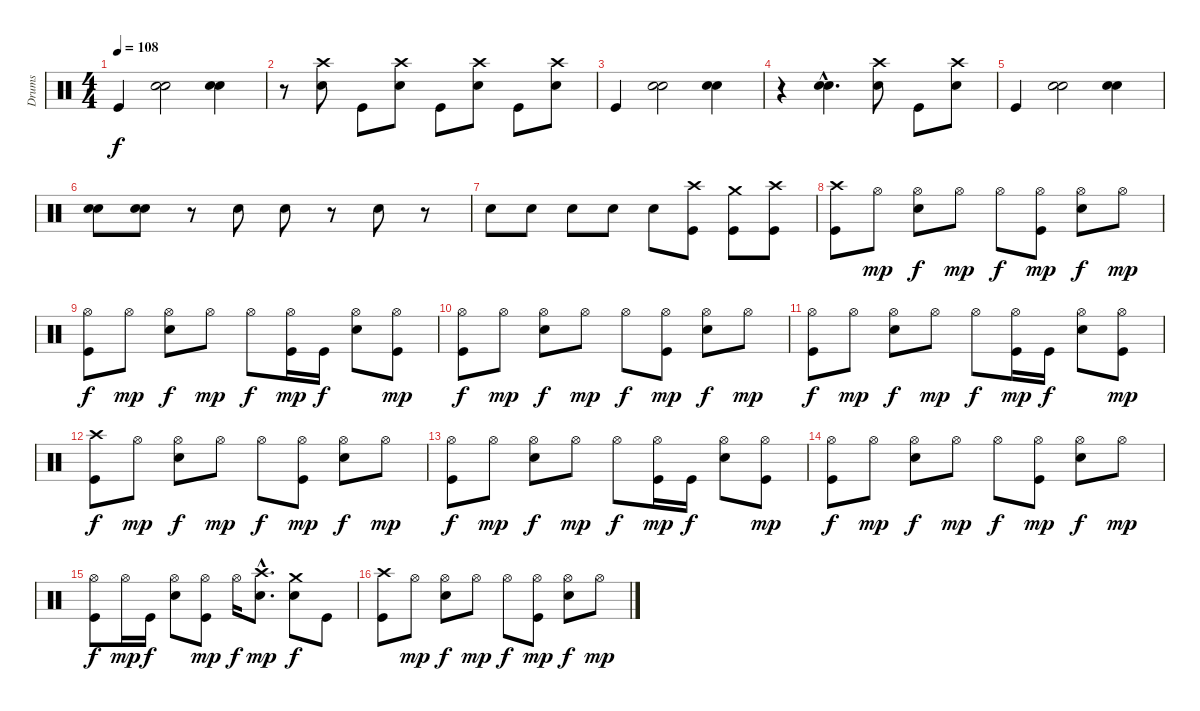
\track ("Drums" "Drums") {instrument percussion}
\staff {score}
\articulation defaults
\ts (4 4)
\tempo 108
\clef neutral
\ks c "Kick (hit)".4{dy f}
("Snare (hit) 2" "Electric Snare (hit)").2 ("Snare (hit) 2" "Electric Snare (hit)").4 |
r.8 ("Crash high (hit)" "Snare (hit) 2").8 "Kick (hit)".8 ("Crash high (hit)" "Snare (hit) 2").8 "Kick (hit)".8 ("Crash high (hit)" "Snare (hit) 2").8 "Kick (hit)".8 ("Crash high (hit)" "Snare (hit) 2").8 |
"Kick (hit)".4 ("Snare (hit) 2" "Electric Snare (hit)").2 ("Snare (hit) 2" "Electric Snare (hit)").4 |
r.4 ("Snare (hit) 2"{hac} "Electric Snare (hit)"{hac}).4{d} ("Crash high (hit)" "Snare (hit) 2").8 "Kick (hit)".8 ("Crash high (hit)" "Snare (hit) 2").8 |
"Kick (hit)".4 ("Snare (hit) 2" "Electric Snare (hit)").2 ("Snare (hit) 2" "Electric Snare (hit)").4 |
("Snare (hit) 2" "Electric Snare (hit)").8 ("Snare (hit) 2" "Electric Snare (hit)").8 r.8 "Snare (hit) 2".8 "Snare (hit) 2".8 r.8 "Snare (hit) 2".8 r.8 |
"Snare (hit) 2".8 "Snare (hit) 2".8 "Snare (hit) 2".8 "Snare (hit) 2".8 "Snare (hit) 2".8 ("Crash high (hit)" "Kick (hit)").8 ("Crash medium (hit)" "Kick (hit)").8 ("Crash high (hit)" "Kick (hit)").8 |
("Crash high (hit)" "Kick (hit)").8 "Hi-Hat (open)".8{dy mp} ("Hi-Hat (open)" "Snare (hit) 2").8{dy f} "Hi-Hat (open)".8{dy mp} "Hi-Hat (open)".8{dy f} ("Hi-Hat (open)" "Kick (hit)").8{dy mp} ("Hi-Hat (open)" "Snare (hit) 2").8{dy f} "Hi-Hat (open)".8{dy mp} |
("Hi-Hat (open)" "Kick (hit)").8{dy f} "Hi-Hat (open)".8{dy mp} ("Hi-Hat (open)" "Snare (hit) 2").8{dy f} "Hi-Hat (open)".8{dy mp} "Hi-Hat (open)".8{dy f} ("Hi-Hat (open)" "Kick (hit)").16{dy mp} "Kick (hit)".16{dy f} ("Hi-Hat (open)" "Snare (hit) 2").8 ("Hi-Hat (open)" "Kick (hit)").8{dy mp} |
("Hi-Hat (open)" "Kick (hit)").8{dy f} "Hi-Hat (open)".8{dy mp} ("Hi-Hat (open)" "Snare (hit) 2").8{dy f} "Hi-Hat (open)".8{dy mp} "Hi-Hat (open)".8{dy f} ("Hi-Hat (open)" "Kick (hit)").8{dy mp} ("Hi-Hat (open)" "Snare (hit) 2").8{dy f} "Hi-Hat (open)".8{dy mp} |
("Hi-Hat (open)" "Kick (hit)").8{dy f} "Hi-Hat (open)".8{dy mp} ("Hi-Hat (open)" "Snare (hit) 2").8{dy f} "Hi-Hat (open)".8{dy mp} "Hi-Hat (open)".8{dy f} ("Hi-Hat (open)" "Kick (hit)").16{dy mp} "Kick (hit)".16{dy f} ("Hi-Hat (open)" "Snare (hit) 2").8 ("Hi-Hat (open)" "Kick (hit)").8{dy mp} |
("Crash high (hit)" "Kick (hit)").8{dy f} "Hi-Hat (open)".8{dy mp} ("Hi-Hat (open)" "Snare (hit) 2").8{dy f} "Hi-Hat (open)".8{dy mp} "Hi-Hat (open)".8{dy f} ("Hi-Hat (open)" "Kick (hit)").8{dy mp} ("Hi-Hat (open)" "Snare (hit) 2").8{dy f} "Hi-Hat (open)".8{dy mp} |
("Hi-Hat (open)" "Kick (hit)").8{dy f} "Hi-Hat (open)".8{dy mp} ("Hi-Hat (open)" "Snare (hit) 2").8{dy f} "Hi-Hat (open)".8{dy mp} "Hi-Hat (open)".8{dy f} ("Hi-Hat (open)" "Kick (hit)").16{dy mp} "Kick (hit)".16{dy f} ("Hi-Hat (open)" "Snare (hit) 2").8 ("Hi-Hat (open)" "Kick (hit)").8{dy mp} |
("Hi-Hat (open)" "Kick (hit)").8{dy f} "Hi-Hat (open)".8{dy mp} ("Hi-Hat (open)" "Snare (hit) 2").8{dy f} "Hi-Hat (open)".8{dy mp} "Hi-Hat (open)".8{dy f} ("Hi-Hat (open)" "Kick (hit)").8{dy mp} ("Hi-Hat (open)" "Snare (hit) 2").8{dy f} "Hi-Hat (open)".8{dy mp} |
("Hi-Hat (open)" "Kick (hit)").8{dy f} "Hi-Hat (open)".16{dy mp} "Kick (hit)".16{dy f} ("Hi-Hat (open)" "Snare (hit) 2").8 ("Hi-Hat (open)" "Kick (hit)").8{dy mp} "Hi-Hat (open)".16{dy f} ("Crash high (hit)"{hac} "Snare (hit) 2"{hac}).8{d dy mp} ("Crash medium (hit)" "Snare (hit) 2").8{dy f} "Kick (hit)".8 |
("Crash high (hit)" "Kick (hit)").8 "Hi-Hat (open)".8{dy mp} ("Hi-Hat (open)" "Snare (hit) 2").8{dy f} "Hi-Hat (open)".8{dy mp} "Hi-Hat (open)".8{dy f} ("Hi-Hat (open)" "Kick (hit)").8{dy mp} ("Hi-Hat (open)" "Snare (hit) 2").8{dy f} "Hi-Hat (open)".8{dy mp}
